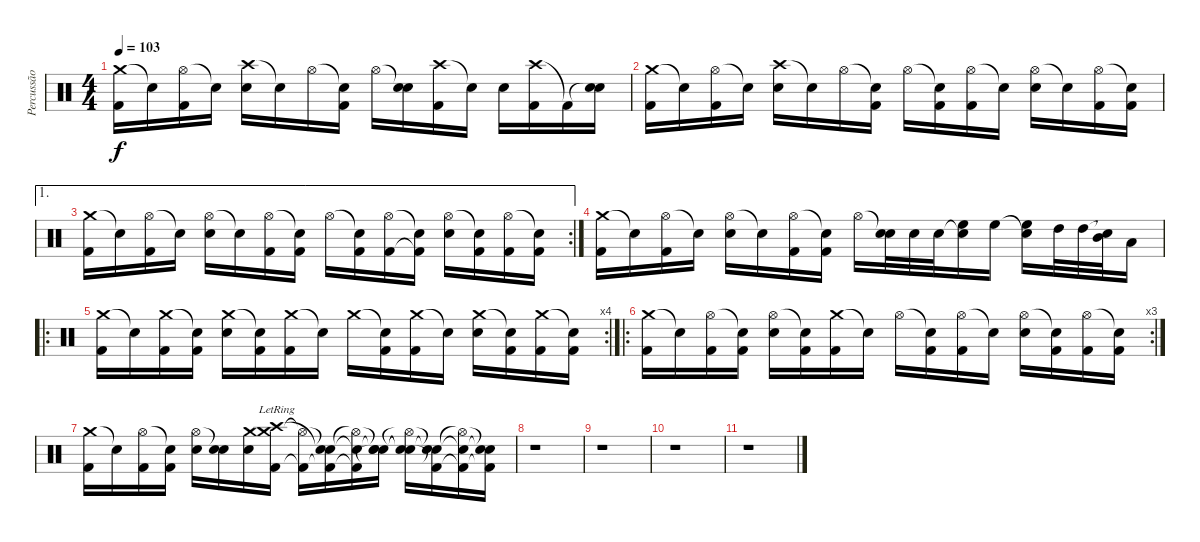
\track ("Percussão" "Percussão") {instrument percussion}
\staff {score}
\articulation defaults
\ts (4 4)
\tempo 103
\clef neutral
\ks c
("Crash medium (hit)" "Kick (hit) 2").16{dy f} "Snare (hit)"{t}.16 ("Hi-Hat (open)" "Kick (hit) 2").16 "Snare (hit)"{t}.16 ("Crash high (hit)" "Electric Snare (hit)").16 "Snare (hit)"{t}.16 "Hi-Hat (open)".16 ("Snare (hit)"{t} "Kick (hit) 2").16 "Hi-Hat (open)".16 ("Snare (hit)"{t} "Electric Snare (hit)").16 ("Crash high (hit)" "Kick (hit) 2").16 "Snare (hit)"{t}.16 "Electric Snare (hit)".16 ("Crash high (hit)" "Kick (hit) 2").16 "Kick (hit) 2"{t}.16 ("Snare (hit)"{t} "Electric Snare (hit)").16 |
("Crash medium (hit)" "Kick (hit) 2").16 "Snare (hit)"{t}.16 ("Hi-Hat (open)" "Kick (hit) 2").16 "Snare (hit)"{t}.16 ("Crash high (hit)" "Electric Snare (hit)").16 "Snare (hit)"{t}.16 "Hi-Hat (open)".16 ("Snare (hit)"{t} "Kick (hit) 2").16 "Hi-Hat (open)".16 ("Snare (hit)"{t} "Kick (hit) 2").16 ("Hi-Hat (open)" "Kick (hit) 2").16 "Snare (hit)"{t}.16 ("Hi-Hat (open)" "Electric Snare (hit)").16 "Snare (hit)"{t}.16 ("Hi-Hat (open)" "Kick (hit) 2").16 ("Snare (hit)"{t} "Kick (hit) 2").16 |
\ae 1
\rc 2
("Crash medium (hit)" "Kick (hit) 2").16 "Snare (hit)"{t}.16 ("Hi-Hat (open)" "Kick (hit) 2").16 "Snare (hit)"{t}.16 ("Hi-Hat (open)" "Electric Snare (hit)").16 "Snare (hit)"{t}.16 ("Hi-Hat (open)" "Kick (hit) 2").16 ("Snare (hit)"{t} "Kick (hit) 2").16 "Hi-Hat (open)".16 ("Snare (hit)"{t} "Kick (hit) 2").16 ("Hi-Hat (open)" "Kick (hit) 2").16 ("Snare (hit)"{t} "Kick (hit) 2"{t}).16 ("Hi-Hat (open)" "Electric Snare (hit)").16 ("Snare (hit)"{t} "Kick (hit) 2").16 ("Hi-Hat (open)" "Kick (hit) 2").16 ("Snare (hit)"{t} "Kick (hit) 2").16 |
("Crash medium (hit)" "Kick (hit) 2").16 "Snare (hit)"{t}.16 ("Hi-Hat (open)" "Kick (hit) 2").16 "Snare (hit)"{t}.16 ("Hi-Hat (open)" "Electric Snare (hit)").16 "Snare (hit)"{t}.16 ("Hi-Hat (open)" "Kick (hit) 2").16 ("Snare (hit)"{t} "Kick (hit) 2").16 "Hi-Hat (open)".16 ("Snare (hit)"{t} "Electric Snare (hit)").32 "Electric Snare (hit)".32 "Electric Snare (hit)".32 ("Snare (hit)"{t} "High Floor Tom (hit)").16 "High Floor Tom (hit)".16 ("Snare (hit)"{t} "High Floor Tom (hit)").16 "High Tom (hit)".32 "High Tom (hit)".32 ("Snare (hit)"{t} "Mid Tom (hit)").32 "Low Tom (hit)".16 |
\ro
\rc 4
("Crash medium (hit)" "Kick (hit) 2").16 "Snare (hit)"{t}.16 ("Crash medium (hit)" "Kick (hit) 2").16 ("Snare (hit)"{t} "Kick (hit) 2").16 ("Crash medium (hit)" "Electric Snare (hit)").16 ("Snare (hit)"{t} "Kick (hit) 2").16 ("Crash medium (hit)" "Kick (hit) 2").16 "Snare (hit)"{t}.16 "Crash medium (hit)".16 ("Snare (hit)"{t} "Kick (hit) 2").16 ("Crash medium (hit)" "Kick (hit) 2").16 "Snare (hit)"{t}.16 ("Crash medium (hit)" "Electric Snare (hit)").16 ("Snare (hit)"{t} "Kick (hit) 2").16 ("Crash medium (hit)" "Kick (hit) 2").16 ("Snare (hit)"{t} "Kick (hit) 2").16 |
\ro
\rc 3
("Crash medium (hit)" "Kick (hit) 2").16 "Snare (hit)"{t}.16 ("Hi-Hat (open)" "Kick (hit) 2").16 ("Snare (hit)"{t} "Kick (hit) 2").16 ("Hi-Hat (open)" "Electric Snare (hit)").16 ("Snare (hit)"{t} "Kick (hit) 2").16 ("Crash medium (hit)" "Kick (hit) 2").16 "Snare (hit)"{t}.16 "Hi-Hat (open)".16 ("Snare (hit)"{t} "Kick (hit) 2").16 ("Hi-Hat (open)" "Kick (hit) 2").16 "Snare (hit)"{t}.16 ("Hi-Hat (open)" "Electric Snare (hit)").16 ("Snare (hit)"{t} "Kick (hit) 2").16 ("Hi-Hat (open)" "Kick (hit) 2").16 ("Snare (hit)"{t} "Kick (hit) 2").16 |
("Crash medium (hit)" "Kick (hit) 2").16 "Snare (hit)"{t}.16 ("Hi-Hat (open)" "Kick (hit) 2").16 ("Snare (hit)"{t} "Kick (hit) 2").16 ("Hi-Hat (open)" "Electric Snare (hit)").16 ("Snare (hit)"{t} "Electric Snare (hit)").16 ("Crash medium (hit)" "Electric Snare (hit)").16 ("Crash medium (hit)"{lr} "Kick (hit) 2" "Crash high (hit)"{lr}).16 ("Hi-Hat (open)"{t} "Kick (hit) 2"{t}).16 ("Snare (hit)"{t} "Kick (hit) 2"{t} "Snare (hit)"{t}).16 ("Hi-Hat (open)"{t} "Kick (hit) 2"{t} "Snare (hit)"{t}).16 ("Snare (hit)"{t} "Snare (hit)"{t} "Snare (hit)"{t}).16 ("Hi-Hat (open)"{t} "Electric Snare (hit)"{t} "Snare (hit)"{t}).16 ("Snare (hit)"{t} "Kick (hit) 2"{t} "Snare (hit)"{t}).16 ("Hi-Hat (open)"{t} "Kick (hit) 2"{t} "Snare (hit)"{t}).16 ("Snare (hit)"{t} "Kick (hit) 2"{t} "Snare (hit)"{t}).16 |
r.1 |
r.1 |
r.1 |
r.1
